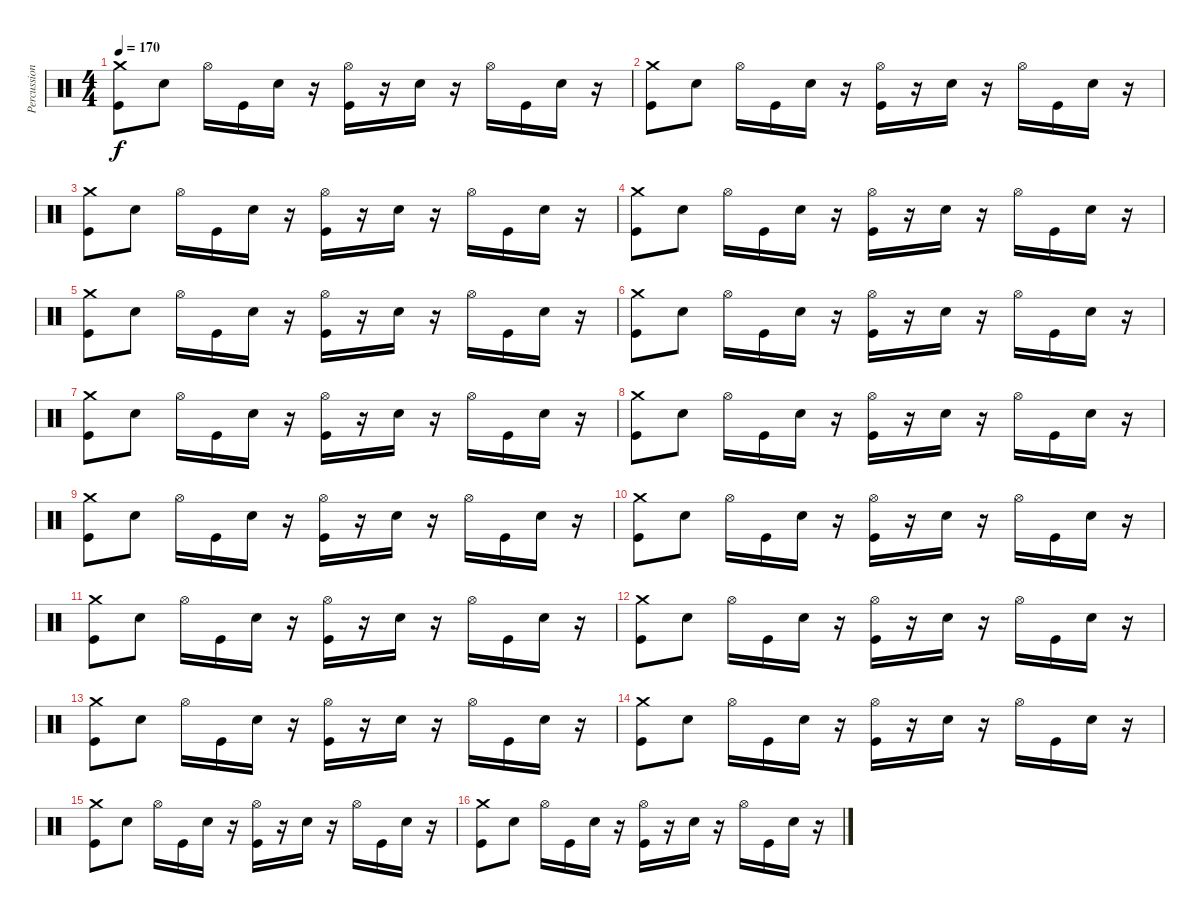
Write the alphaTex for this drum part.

\track ("Percussion [Ron]" "Percussion") {instrument percussion}
\staff {score}
\articulation defaults
\ts (4 4)
\tempo 170
\clef neutral
\ks c
("Kick (hit)" "Crash medium (hit)").8{dy f} "Snare (hit) 2".8 "Hi-Hat (open)".16 "Kick (hit)".16 "Snare (hit) 2".16 r.16 ("Kick (hit)" "Hi-Hat (open)").16 r.16 "Snare (hit) 2".16 r.16 "Hi-Hat (open)".16 "Kick (hit)".16 "Snare (hit) 2".16 r.16 |
("Kick (hit)" "Crash medium (hit)").8 "Snare (hit) 2".8 "Hi-Hat (open)".16 "Kick (hit)".16 "Snare (hit) 2".16 r.16 ("Kick (hit)" "Hi-Hat (open)").16 r.16 "Snare (hit) 2".16 r.16 "Hi-Hat (open)".16 "Kick (hit)".16 "Snare (hit) 2".16 r.16 |
("Kick (hit)" "Crash medium (hit)").8 "Snare (hit) 2".8 "Hi-Hat (open)".16 "Kick (hit)".16 "Snare (hit) 2".16 r.16 ("Kick (hit)" "Hi-Hat (open)").16 r.16 "Snare (hit) 2".16 r.16 "Hi-Hat (open)".16 "Kick (hit)".16 "Snare (hit) 2".16 r.16 |
("Kick (hit)" "Crash medium (hit)").8 "Snare (hit) 2".8 "Hi-Hat (open)".16 "Kick (hit)".16 "Snare (hit) 2".16 r.16 ("Kick (hit)" "Hi-Hat (open)").16 r.16 "Snare (hit) 2".16 r.16 "Hi-Hat (open)".16 "Kick (hit)".16 "Snare (hit) 2".16 r.16 |
("Kick (hit)" "Crash medium (hit)").8 "Snare (hit) 2".8 "Hi-Hat (open)".16 "Kick (hit)".16 "Snare (hit) 2".16 r.16 ("Kick (hit)" "Hi-Hat (open)").16 r.16 "Snare (hit) 2".16 r.16 "Hi-Hat (open)".16 "Kick (hit)".16 "Snare (hit) 2".16 r.16 |
("Kick (hit)" "Crash medium (hit)").8 "Snare (hit) 2".8 "Hi-Hat (open)".16 "Kick (hit)".16 "Snare (hit) 2".16 r.16 ("Kick (hit)" "Hi-Hat (open)").16 r.16 "Snare (hit) 2".16 r.16 "Hi-Hat (open)".16 "Kick (hit)".16 "Snare (hit) 2".16 r.16 |
("Kick (hit)" "Crash medium (hit)").8 "Snare (hit) 2".8 "Hi-Hat (open)".16 "Kick (hit)".16 "Snare (hit) 2".16 r.16 ("Kick (hit)" "Hi-Hat (open)").16 r.16 "Snare (hit) 2".16 r.16 "Hi-Hat (open)".16 "Kick (hit)".16 "Snare (hit) 2".16 r.16 |
("Kick (hit)" "Crash medium (hit)").8 "Snare (hit) 2".8 "Hi-Hat (open)".16 "Kick (hit)".16 "Snare (hit) 2".16 r.16 ("Kick (hit)" "Hi-Hat (open)").16 r.16 "Snare (hit) 2".16 r.16 "Hi-Hat (open)".16 "Kick (hit)".16 "Snare (hit) 2".16 r.16 |
("Kick (hit)" "Crash medium (hit)").8 "Snare (hit) 2".8 "Hi-Hat (open)".16 "Kick (hit)".16 "Snare (hit) 2".16 r.16 ("Kick (hit)" "Hi-Hat (open)").16 r.16 "Snare (hit) 2".16 r.16 "Hi-Hat (open)".16 "Kick (hit)".16 "Snare (hit) 2".16 r.16 |
("Kick (hit)" "Crash medium (hit)").8 "Snare (hit) 2".8 "Hi-Hat (open)".16 "Kick (hit)".16 "Snare (hit) 2".16 r.16 ("Kick (hit)" "Hi-Hat (open)").16 r.16 "Snare (hit) 2".16 r.16 "Hi-Hat (open)".16 "Kick (hit)".16 "Snare (hit) 2".16 r.16 |
("Kick (hit)" "Crash medium (hit)").8 "Snare (hit) 2".8 "Hi-Hat (open)".16 "Kick (hit)".16 "Snare (hit) 2".16 r.16 ("Kick (hit)" "Hi-Hat (open)").16 r.16 "Snare (hit) 2".16 r.16 "Hi-Hat (open)".16 "Kick (hit)".16 "Snare (hit) 2".16 r.16 |
("Kick (hit)" "Crash medium (hit)").8 "Snare (hit) 2".8 "Hi-Hat (open)".16 "Kick (hit)".16 "Snare (hit) 2".16 r.16 ("Kick (hit)" "Hi-Hat (open)").16 r.16 "Snare (hit) 2".16 r.16 "Hi-Hat (open)".16 "Kick (hit)".16 "Snare (hit) 2".16 r.16 |
("Kick (hit)" "Crash medium (hit)").8 "Snare (hit) 2".8 "Hi-Hat (open)".16 "Kick (hit)".16 "Snare (hit) 2".16 r.16 ("Kick (hit)" "Hi-Hat (open)").16 r.16 "Snare (hit) 2".16 r.16 "Hi-Hat (open)".16 "Kick (hit)".16 "Snare (hit) 2".16 r.16 |
("Kick (hit)" "Crash medium (hit)").8 "Snare (hit) 2".8 "Hi-Hat (open)".16 "Kick (hit)".16 "Snare (hit) 2".16 r.16 ("Kick (hit)" "Hi-Hat (open)").16 r.16 "Snare (hit) 2".16 r.16 "Hi-Hat (open)".16 "Kick (hit)".16 "Snare (hit) 2".16 r.16 |
("Kick (hit)" "Crash medium (hit)").8 "Snare (hit) 2".8 "Hi-Hat (open)".16 "Kick (hit)".16 "Snare (hit) 2".16 r.16 ("Kick (hit)" "Hi-Hat (open)").16 r.16 "Snare (hit) 2".16 r.16 "Hi-Hat (open)".16 "Kick (hit)".16 "Snare (hit) 2".16 r.16 |
("Kick (hit)" "Crash medium (hit)").8 "Snare (hit) 2".8 "Hi-Hat (open)".16 "Kick (hit)".16 "Snare (hit) 2".16 r.16 ("Kick (hit)" "Hi-Hat (open)").16 r.16 "Snare (hit) 2".16 r.16 "Hi-Hat (open)".16 "Kick (hit)".16 "Snare (hit) 2".16 r.16
